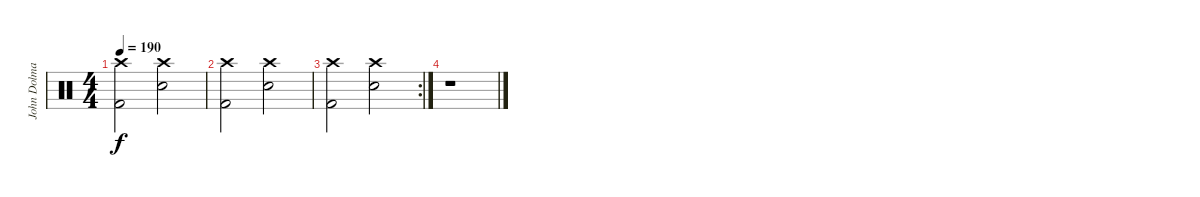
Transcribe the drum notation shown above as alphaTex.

\track ("John Dolmayan" "John Dolma") {instrument percussion}
\staff {score}
\articulation defaults
\ts (4 4)
\tempo 190
\clef neutral
\ks c
("Crash high (hit)" "Kick (hit) 2").2{dy f} ("Crash high (hit)" "Electric Snare (hit)").2 |
("Crash high (hit)" "Kick (hit) 2").2 ("Crash high (hit)" "Electric Snare (hit)").2 |
\rc 2
("Crash high (hit)" "Kick (hit) 2").2 ("Crash high (hit)" "Electric Snare (hit)").2 |
r.1
